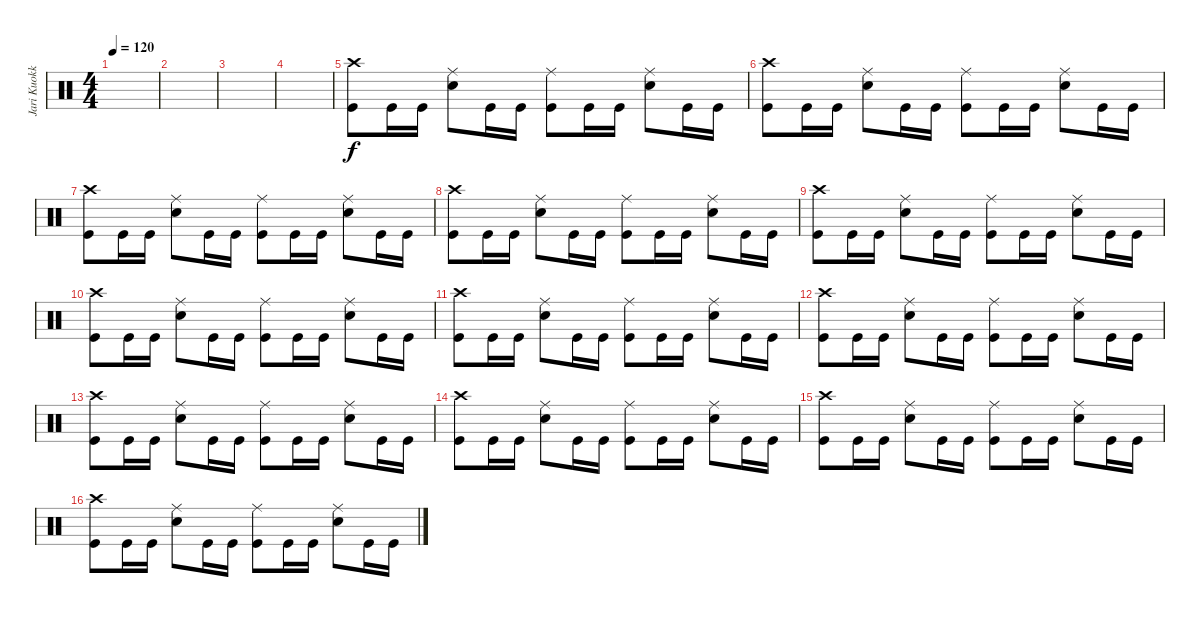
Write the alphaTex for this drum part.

\track ("Jari Kuokkanen" "Jari Kuokk") {instrument percussion bank 255}
\staff {score}
\articulation defaults
\ts (4 4)
\tempo 120
\clef neutral
\ks c
|
|
|
|
("Crash high (hit)" "Kick (hit)").8 "Kick (hit)".16 "Kick (hit)".16 ("Ride (middle)" "Snare (hit) 2").8 "Kick (hit)".16 "Kick (hit)".16 ("Ride (middle)" "Kick (hit)").8 "Kick (hit)".16 "Kick (hit)".16 ("Ride (middle)" "Snare (hit) 2").8 "Kick (hit)".16 "Kick (hit)".16 |
("Crash high (hit)" "Kick (hit)").8 "Kick (hit)".16 "Kick (hit)".16 ("Ride (middle)" "Snare (hit) 2").8 "Kick (hit)".16 "Kick (hit)".16 ("Ride (middle)" "Kick (hit)").8 "Kick (hit)".16 "Kick (hit)".16 ("Ride (middle)" "Snare (hit) 2").8 "Kick (hit)".16 "Kick (hit)".16 |
("Crash high (hit)" "Kick (hit)").8 "Kick (hit)".16 "Kick (hit)".16 ("Ride (middle)" "Snare (hit) 2").8 "Kick (hit)".16 "Kick (hit)".16 ("Ride (middle)" "Kick (hit)").8 "Kick (hit)".16 "Kick (hit)".16 ("Ride (middle)" "Snare (hit) 2").8 "Kick (hit)".16 "Kick (hit)".16 |
("Crash high (hit)" "Kick (hit)").8 "Kick (hit)".16 "Kick (hit)".16 ("Ride (middle)" "Snare (hit) 2").8 "Kick (hit)".16 "Kick (hit)".16 ("Ride (middle)" "Kick (hit)").8 "Kick (hit)".16 "Kick (hit)".16 ("Ride (middle)" "Snare (hit) 2").8 "Kick (hit)".16 "Kick (hit)".16 |
("Crash high (hit)" "Kick (hit)").8 "Kick (hit)".16 "Kick (hit)".16 ("Ride (middle)" "Snare (hit) 2").8 "Kick (hit)".16 "Kick (hit)".16 ("Ride (middle)" "Kick (hit)").8 "Kick (hit)".16 "Kick (hit)".16 ("Ride (middle)" "Snare (hit) 2").8 "Kick (hit)".16 "Kick (hit)".16 |
("Crash high (hit)" "Kick (hit)").8 "Kick (hit)".16 "Kick (hit)".16 ("Ride (middle)" "Snare (hit) 2").8 "Kick (hit)".16 "Kick (hit)".16 ("Ride (middle)" "Kick (hit)").8 "Kick (hit)".16 "Kick (hit)".16 ("Ride (middle)" "Snare (hit) 2").8 "Kick (hit)".16 "Kick (hit)".16 |
("Crash high (hit)" "Kick (hit)").8 "Kick (hit)".16 "Kick (hit)".16 ("Ride (middle)" "Snare (hit) 2").8 "Kick (hit)".16 "Kick (hit)".16 ("Ride (middle)" "Kick (hit)").8 "Kick (hit)".16 "Kick (hit)".16 ("Ride (middle)" "Snare (hit) 2").8 "Kick (hit)".16 "Kick (hit)".16 |
("Crash high (hit)" "Kick (hit)").8 "Kick (hit)".16 "Kick (hit)".16 ("Ride (middle)" "Snare (hit) 2").8 "Kick (hit)".16 "Kick (hit)".16 ("Ride (middle)" "Kick (hit)").8 "Kick (hit)".16 "Kick (hit)".16 ("Ride (middle)" "Snare (hit) 2").8 "Kick (hit)".16 "Kick (hit)".16 |
("Crash high (hit)" "Kick (hit)").8 "Kick (hit)".16 "Kick (hit)".16 ("Ride (middle)" "Snare (hit) 2").8 "Kick (hit)".16 "Kick (hit)".16 ("Ride (middle)" "Kick (hit)").8 "Kick (hit)".16 "Kick (hit)".16 ("Ride (middle)" "Snare (hit) 2").8 "Kick (hit)".16 "Kick (hit)".16 |
("Crash high (hit)" "Kick (hit)").8 "Kick (hit)".16 "Kick (hit)".16 ("Ride (middle)" "Snare (hit) 2").8 "Kick (hit)".16 "Kick (hit)".16 ("Ride (middle)" "Kick (hit)").8 "Kick (hit)".16 "Kick (hit)".16 ("Ride (middle)" "Snare (hit) 2").8 "Kick (hit)".16 "Kick (hit)".16 |
("Crash high (hit)" "Kick (hit)").8 "Kick (hit)".16 "Kick (hit)".16 ("Ride (middle)" "Snare (hit) 2").8 "Kick (hit)".16 "Kick (hit)".16 ("Ride (middle)" "Kick (hit)").8 "Kick (hit)".16 "Kick (hit)".16 ("Ride (middle)" "Snare (hit) 2").8 "Kick (hit)".16 "Kick (hit)".16 |
("Crash high (hit)" "Kick (hit)").8 "Kick (hit)".16 "Kick (hit)".16 ("Ride (middle)" "Snare (hit) 2").8 "Kick (hit)".16 "Kick (hit)".16 ("Ride (middle)" "Kick (hit)").8 "Kick (hit)".16 "Kick (hit)".16 ("Ride (middle)" "Snare (hit) 2").8 "Kick (hit)".16 "Kick (hit)".16
